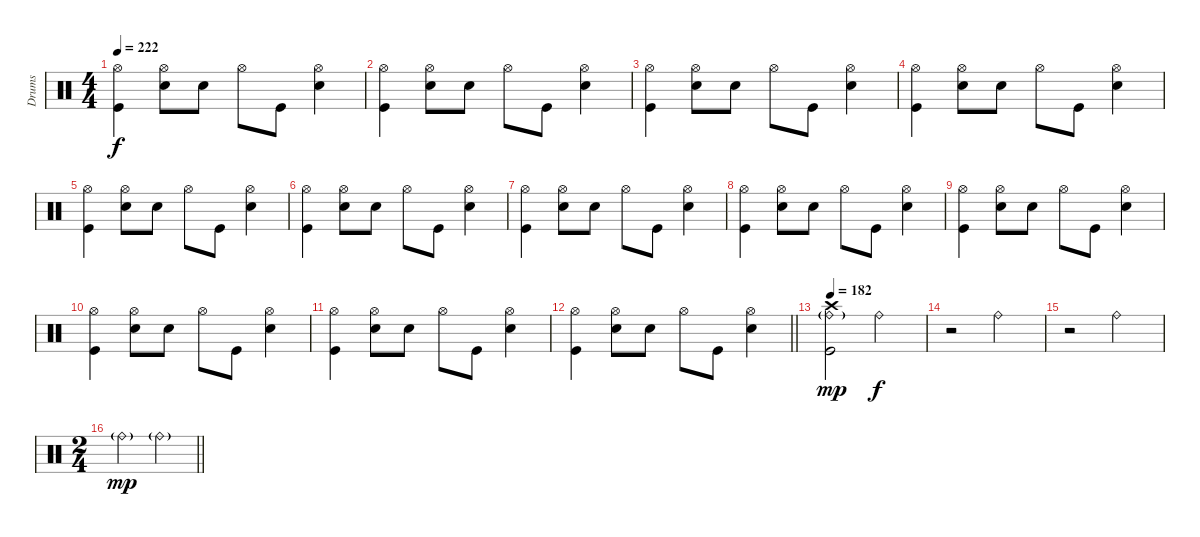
\track ("Drums" "Drums") {instrument percussion}
\staff
\articulation defaults
\ts (4 4)
\section ("" "")
\tempo 222
\clef neutral
\ks c
("Hi-Hat (open)" "Kick (hit)").4{dy f} ("Hi-Hat (open)" "Electric Snare (hit)").8 "Electric Snare (hit)".8 "Hi-Hat (open)".8 "Kick (hit)".8 ("Hi-Hat (open)" "Electric Snare (hit)").4 |
("Hi-Hat (open)" "Kick (hit)").4 ("Hi-Hat (open)" "Electric Snare (hit)").8 "Electric Snare (hit)".8 "Hi-Hat (open)".8 "Kick (hit)".8 ("Hi-Hat (open)" "Electric Snare (hit)").4 |
("Hi-Hat (open)" "Kick (hit)").4 ("Hi-Hat (open)" "Electric Snare (hit)").8 "Electric Snare (hit)".8 "Hi-Hat (open)".8 "Kick (hit)".8 ("Hi-Hat (open)" "Electric Snare (hit)").4 |
("Hi-Hat (open)" "Kick (hit)").4 ("Hi-Hat (open)" "Electric Snare (hit)").8 "Electric Snare (hit)".8 "Hi-Hat (open)".8 "Kick (hit)".8 ("Hi-Hat (open)" "Electric Snare (hit)").4 |
("Hi-Hat (open)" "Kick (hit)").4 ("Hi-Hat (open)" "Electric Snare (hit)").8 "Electric Snare (hit)".8 "Hi-Hat (open)".8 "Kick (hit)".8 ("Hi-Hat (open)" "Electric Snare (hit)").4 |
("Hi-Hat (open)" "Kick (hit)").4 ("Hi-Hat (open)" "Electric Snare (hit)").8 "Electric Snare (hit)".8 "Hi-Hat (open)".8 "Kick (hit)".8 ("Hi-Hat (open)" "Electric Snare (hit)").4 |
("Hi-Hat (open)" "Kick (hit)").4 ("Hi-Hat (open)" "Electric Snare (hit)").8 "Electric Snare (hit)".8 "Hi-Hat (open)".8 "Kick (hit)".8 ("Hi-Hat (open)" "Electric Snare (hit)").4 |
("Hi-Hat (open)" "Kick (hit)").4 ("Hi-Hat (open)" "Electric Snare (hit)").8 "Electric Snare (hit)".8 "Hi-Hat (open)".8 "Kick (hit)".8 ("Hi-Hat (open)" "Electric Snare (hit)").4 |
("Hi-Hat (open)" "Kick (hit)").4 ("Hi-Hat (open)" "Electric Snare (hit)").8 "Electric Snare (hit)".8 "Hi-Hat (open)".8 "Kick (hit)".8 ("Hi-Hat (open)" "Electric Snare (hit)").4 |
("Hi-Hat (open)" "Kick (hit)").4 ("Hi-Hat (open)" "Electric Snare (hit)").8 "Electric Snare (hit)".8 "Hi-Hat (open)".8 "Kick (hit)".8 ("Hi-Hat (open)" "Electric Snare (hit)").4 |
("Hi-Hat (open)" "Kick (hit)").4 ("Hi-Hat (open)" "Electric Snare (hit)").8 "Electric Snare (hit)".8 "Hi-Hat (open)".8 "Kick (hit)".8 ("Hi-Hat (open)" "Electric Snare (hit)").4 |
\barLineRight lightlight
("Hi-Hat (open)" "Kick (hit)").4 ("Hi-Hat (open)" "Electric Snare (hit)").8 "Electric Snare (hit)".8 "Hi-Hat (open)".8 "Kick (hit)".8 ("Hi-Hat (open)" "Electric Snare (hit)").4 |
\tempo 182
("Crash high (hit)" "Ride (bell)"{g} "Kick (hit)").2{dy mp} "Ride (bell)".2{dy f} |
r.2 "Ride (bell)".2 |
r.2 "Ride (bell)".2 |
\ts (2 4)
\barLineRight lightlight "Ride (bell)"{g}.4{dy mp} "Ride (bell)"{g}.4
